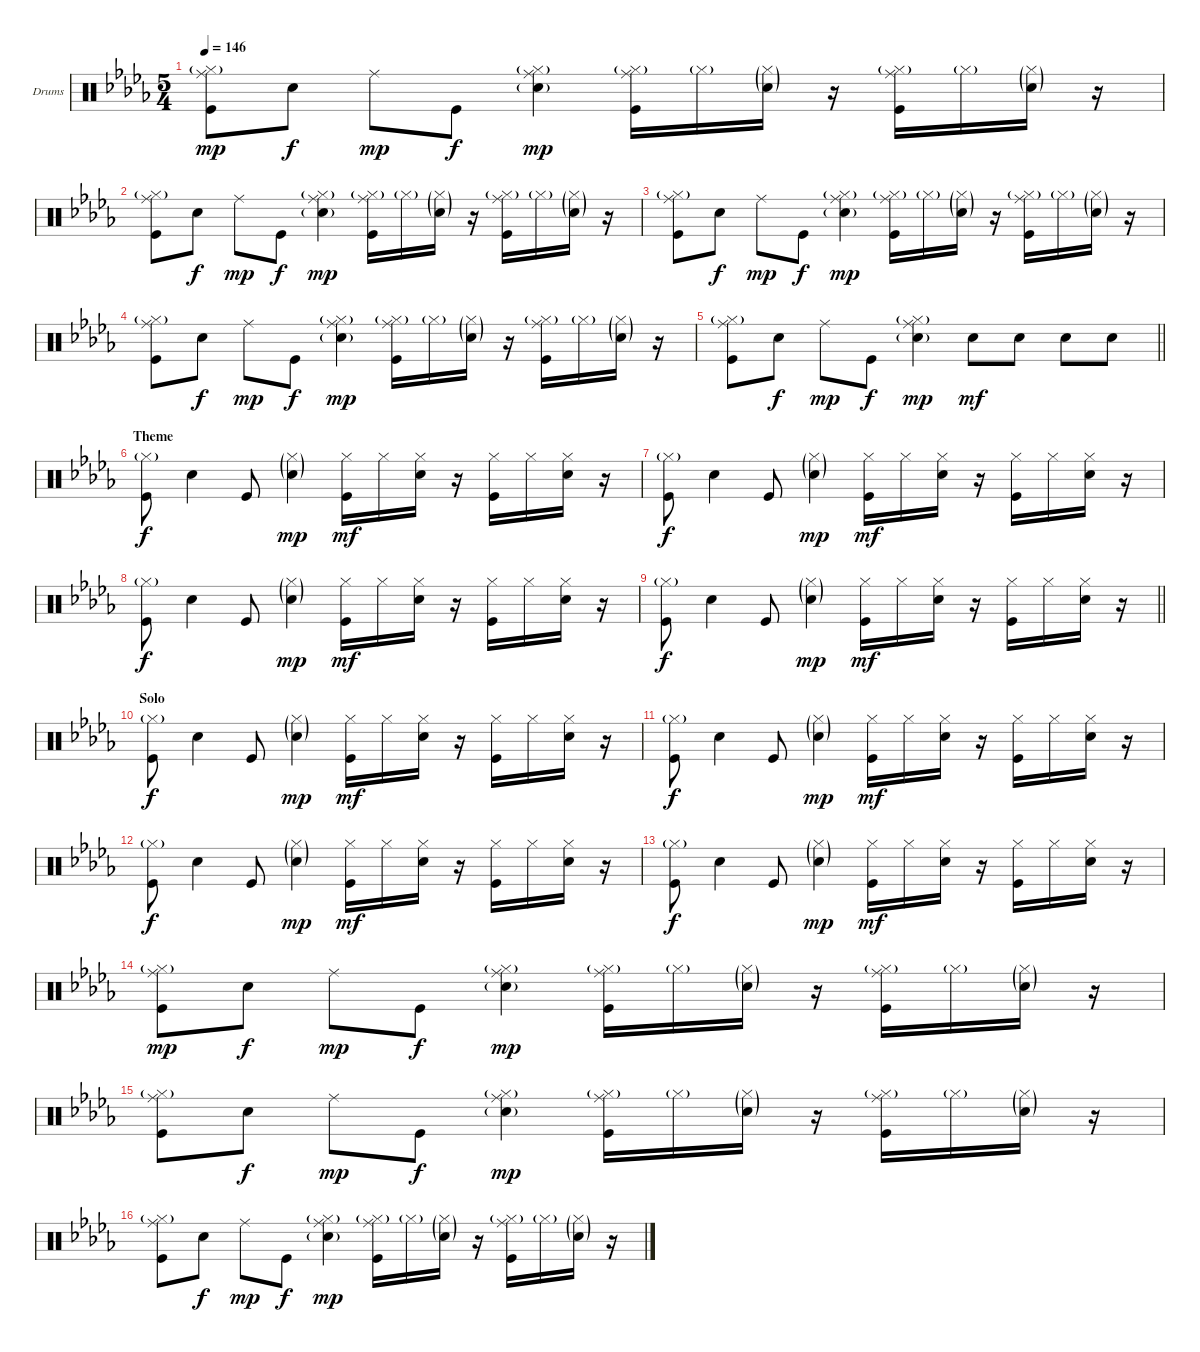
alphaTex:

\bracketExtendMode groupsimilarinstruments
\firstSystemTrackNameOrientation horizontal
\otherSystemsTrackNameOrientation horizontal
\track ("Drumkit" "Drums") {instrument percussion}
\staff {score}
\articulation defaults
\ts (5 4)
\tempo 146
\clef neutral
\ks db
("Hi-Hat (closed)"{g} "Ride (middle)" "Kick (hit)").8{dy mp} "Snare (hit) 2".8{dy f} "Ride (middle)".8{dy mp} "Kick (hit)".8{dy f} ("Hi-Hat (closed)"{g} "Ride (middle)" "Snare (hit) 2"{g}).4{dy mp} ("Hi-Hat (closed)"{g} "Ride (middle)" "Kick (hit)").16 "Hi-Hat (closed)"{g}.16 ("Hi-Hat (closed)"{g} "Snare (hit) 2"{g}).16 r.16 ("Hi-Hat (closed)"{g} "Ride (middle)" "Kick (hit)").16 "Hi-Hat (closed)"{g}.16 ("Hi-Hat (closed)"{g} "Snare (hit) 2"{g}).16 r.16 |
("Hi-Hat (closed)"{g} "Ride (middle)" "Kick (hit)").8 "Snare (hit) 2".8{dy f} "Ride (middle)".8{dy mp} "Kick (hit)".8{dy f} ("Hi-Hat (closed)"{g} "Ride (middle)" "Snare (hit) 2"{g}).4{dy mp} ("Hi-Hat (closed)"{g} "Ride (middle)" "Kick (hit)").16 "Hi-Hat (closed)"{g}.16 ("Hi-Hat (closed)"{g} "Snare (hit) 2"{g}).16 r.16 ("Hi-Hat (closed)"{g} "Ride (middle)" "Kick (hit)").16 "Hi-Hat (closed)"{g}.16 ("Hi-Hat (closed)"{g} "Snare (hit) 2"{g}).16 r.16 |
("Hi-Hat (closed)"{g} "Ride (middle)" "Kick (hit)").8 "Snare (hit) 2".8{dy f} "Ride (middle)".8{dy mp} "Kick (hit)".8{dy f} ("Hi-Hat (closed)"{g} "Ride (middle)" "Snare (hit) 2"{g}).4{dy mp} ("Hi-Hat (closed)"{g} "Ride (middle)" "Kick (hit)").16 "Hi-Hat (closed)"{g}.16 ("Hi-Hat (closed)"{g} "Snare (hit) 2"{g}).16 r.16 ("Hi-Hat (closed)"{g} "Ride (middle)" "Kick (hit)").16 "Hi-Hat (closed)"{g}.16 ("Hi-Hat (closed)"{g} "Snare (hit) 2"{g}).16 r.16 |
("Hi-Hat (closed)"{g} "Ride (middle)" "Kick (hit)").8 "Snare (hit) 2".8{dy f} "Ride (middle)".8{dy mp} "Kick (hit)".8{dy f} ("Hi-Hat (closed)"{g} "Ride (middle)" "Snare (hit) 2"{g}).4{dy mp} ("Hi-Hat (closed)"{g} "Ride (middle)" "Kick (hit)").16 "Hi-Hat (closed)"{g}.16 ("Hi-Hat (closed)"{g} "Snare (hit) 2"{g}).16 r.16 ("Hi-Hat (closed)"{g} "Ride (middle)" "Kick (hit)").16 "Hi-Hat (closed)"{g}.16 ("Hi-Hat (closed)"{g} "Snare (hit) 2"{g}).16 r.16 |
\barLineRight lightlight
("Hi-Hat (closed)"{g} "Ride (middle)" "Kick (hit)").8 "Snare (hit) 2".8{dy f} "Ride (middle)".8{dy mp} "Kick (hit)".8{dy f} ("Hi-Hat (closed)"{g} "Ride (middle)" "Snare (hit) 2"{g}).4{dy mp} "Snare (hit) 2".8{dy mf} "Snare (hit) 2".8 "Snare (hit) 2".8 "Snare (hit) 2".8 |
\section ("" "Theme")
("Hi-Hat (closed)"{g} "Kick (hit)").8{dy f} "Snare (hit) 2".4 "Kick (hit)".8 ("Hi-Hat (closed)"{g} "Snare (hit) 2"{g}).4{dy mp} ("Hi-Hat (closed)" "Kick (hit)").16{dy mf} "Hi-Hat (closed)".16 ("Hi-Hat (closed)" "Snare (hit) 2").16 r.16 ("Hi-Hat (closed)" "Kick (hit)").16 "Hi-Hat (closed)".16 ("Hi-Hat (closed)" "Snare (hit) 2").16 r.16 |
("Hi-Hat (closed)"{g} "Kick (hit)").8{dy f} "Snare (hit) 2".4 "Kick (hit)".8 ("Hi-Hat (closed)"{g} "Snare (hit) 2"{g}).4{dy mp} ("Hi-Hat (closed)" "Kick (hit)").16{dy mf} "Hi-Hat (closed)".16 ("Hi-Hat (closed)" "Snare (hit) 2").16 r.16 ("Hi-Hat (closed)" "Kick (hit)").16 "Hi-Hat (closed)".16 ("Hi-Hat (closed)" "Snare (hit) 2").16 r.16 |
("Hi-Hat (closed)"{g} "Kick (hit)").8{dy f} "Snare (hit) 2".4 "Kick (hit)".8 ("Hi-Hat (closed)"{g} "Snare (hit) 2"{g}).4{dy mp} ("Hi-Hat (closed)" "Kick (hit)").16{dy mf} "Hi-Hat (closed)".16 ("Hi-Hat (closed)" "Snare (hit) 2").16 r.16 ("Hi-Hat (closed)" "Kick (hit)").16 "Hi-Hat (closed)".16 ("Hi-Hat (closed)" "Snare (hit) 2").16 r.16 |
\barLineRight lightlight
("Hi-Hat (closed)"{g} "Kick (hit)").8{dy f} "Snare (hit) 2".4 "Kick (hit)".8 ("Hi-Hat (closed)"{g} "Snare (hit) 2"{g}).4{dy mp} ("Hi-Hat (closed)" "Kick (hit)").16{dy mf} "Hi-Hat (closed)".16 ("Hi-Hat (closed)" "Snare (hit) 2").16 r.16 ("Hi-Hat (closed)" "Kick (hit)").16 "Hi-Hat (closed)".16 ("Hi-Hat (closed)" "Snare (hit) 2").16 r.16 |
\section ("" "Solo")
("Hi-Hat (closed)"{g} "Kick (hit)").8{dy f} "Snare (hit) 2".4 "Kick (hit)".8 ("Hi-Hat (closed)"{g} "Snare (hit) 2"{g}).4{dy mp} ("Hi-Hat (closed)" "Kick (hit)").16{dy mf} "Hi-Hat (closed)".16 ("Hi-Hat (closed)" "Snare (hit) 2").16 r.16 ("Hi-Hat (closed)" "Kick (hit)").16 "Hi-Hat (closed)".16 ("Hi-Hat (closed)" "Snare (hit) 2").16 r.16 |
("Hi-Hat (closed)"{g} "Kick (hit)").8{dy f} "Snare (hit) 2".4 "Kick (hit)".8 ("Hi-Hat (closed)"{g} "Snare (hit) 2"{g}).4{dy mp} ("Hi-Hat (closed)" "Kick (hit)").16{dy mf} "Hi-Hat (closed)".16 ("Hi-Hat (closed)" "Snare (hit) 2").16 r.16 ("Hi-Hat (closed)" "Kick (hit)").16 "Hi-Hat (closed)".16 ("Hi-Hat (closed)" "Snare (hit) 2").16 r.16 |
("Hi-Hat (closed)"{g} "Kick (hit)").8{dy f} "Snare (hit) 2".4 "Kick (hit)".8 ("Hi-Hat (closed)"{g} "Snare (hit) 2"{g}).4{dy mp} ("Hi-Hat (closed)" "Kick (hit)").16{dy mf} "Hi-Hat (closed)".16 ("Hi-Hat (closed)" "Snare (hit) 2").16 r.16 ("Hi-Hat (closed)" "Kick (hit)").16 "Hi-Hat (closed)".16 ("Hi-Hat (closed)" "Snare (hit) 2").16 r.16 |
("Hi-Hat (closed)"{g} "Kick (hit)").8{dy f} "Snare (hit) 2".4 "Kick (hit)".8 ("Hi-Hat (closed)"{g} "Snare (hit) 2"{g}).4{dy mp} ("Hi-Hat (closed)" "Kick (hit)").16{dy mf} "Hi-Hat (closed)".16 ("Hi-Hat (closed)" "Snare (hit) 2").16 r.16 ("Hi-Hat (closed)" "Kick (hit)").16 "Hi-Hat (closed)".16 ("Hi-Hat (closed)" "Snare (hit) 2").16 r.16 |
("Hi-Hat (closed)"{g} "Ride (middle)" "Kick (hit)").8{dy mp} "Snare (hit) 2".8{dy f} "Ride (middle)".8{dy mp} "Kick (hit)".8{dy f} ("Hi-Hat (closed)"{g} "Ride (middle)" "Snare (hit) 2"{g}).4{dy mp} ("Hi-Hat (closed)"{g} "Ride (middle)" "Kick (hit)").16 "Hi-Hat (closed)"{g}.16 ("Hi-Hat (closed)"{g} "Snare (hit) 2"{g}).16 r.16 ("Hi-Hat (closed)"{g} "Ride (middle)" "Kick (hit)").16 "Hi-Hat (closed)"{g}.16 ("Hi-Hat (closed)"{g} "Snare (hit) 2"{g}).16 r.16 |
("Hi-Hat (closed)"{g} "Ride (middle)" "Kick (hit)").8 "Snare (hit) 2".8{dy f} "Ride (middle)".8{dy mp} "Kick (hit)".8{dy f} ("Hi-Hat (closed)"{g} "Ride (middle)" "Snare (hit) 2"{g}).4{dy mp} ("Hi-Hat (closed)"{g} "Ride (middle)" "Kick (hit)").16 "Hi-Hat (closed)"{g}.16 ("Hi-Hat (closed)"{g} "Snare (hit) 2"{g}).16 r.16 ("Hi-Hat (closed)"{g} "Ride (middle)" "Kick (hit)").16 "Hi-Hat (closed)"{g}.16 ("Hi-Hat (closed)"{g} "Snare (hit) 2"{g}).16 r.16 |
("Hi-Hat (closed)"{g} "Ride (middle)" "Kick (hit)").8 "Snare (hit) 2".8{dy f} "Ride (middle)".8{dy mp} "Kick (hit)".8{dy f} ("Hi-Hat (closed)"{g} "Ride (middle)" "Snare (hit) 2"{g}).4{dy mp} ("Hi-Hat (closed)"{g} "Ride (middle)" "Kick (hit)").16 "Hi-Hat (closed)"{g}.16 ("Hi-Hat (closed)"{g} "Snare (hit) 2"{g}).16 r.16 ("Hi-Hat (closed)"{g} "Ride (middle)" "Kick (hit)").16 "Hi-Hat (closed)"{g}.16 ("Hi-Hat (closed)"{g} "Snare (hit) 2"{g}).16 r.16
